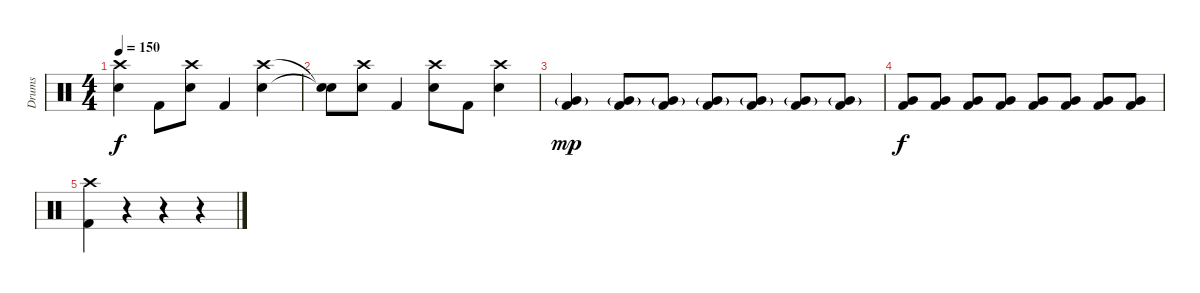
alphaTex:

\track ("Drums" "Drums") {instrument percussion}
\staff {score}
\articulation defaults
\ts (4 4)
\tempo 150
\clef neutral
\ks c
("Crash high (hit)" "Snare (hit) 2").4{dy f} "Kick (hit) 2".8 ("Crash high (hit)" "Snare (hit) 2").8 "Kick (hit) 2".4 ("Crash high (hit)" "Snare (hit) 2").4 |
("Snare (hit)"{t} "Snare (hit)"{t}).8 ("Crash high (hit)" "Snare (hit) 2").8 "Kick (hit) 2".4 ("Crash high (hit)" "Snare (hit) 2").8 "Kick (hit) 2".8 ("Crash high (hit)" "Snare (hit) 2").4 |
("Very Low Tom (hit)"{g} "Kick (hit) 2").4{dy mp} ("Very Low Tom (hit)"{g} "Kick (hit) 2").8 ("Very Low Tom (hit)"{g} "Kick (hit) 2").8 ("Very Low Tom (hit)"{g} "Kick (hit) 2").8 ("Very Low Tom (hit)"{g} "Kick (hit) 2").8 ("Very Low Tom (hit)"{g} "Kick (hit) 2").8 ("Very Low Tom (hit)"{g} "Kick (hit) 2").8 |
("Very Low Tom (hit)" "Kick (hit) 2").8{dy f} ("Very Low Tom (hit)" "Kick (hit) 2").8 ("Very Low Tom (hit)" "Kick (hit) 2").8 ("Very Low Tom (hit)" "Kick (hit) 2").8 ("Very Low Tom (hit)" "Kick (hit) 2").8 ("Very Low Tom (hit)" "Kick (hit) 2").8 ("Very Low Tom (hit)" "Kick (hit) 2").8 ("Very Low Tom (hit)" "Kick (hit) 2").8 |
("Crash high (hit)" "Kick (hit) 2").4 r.4 r.4 r.4
